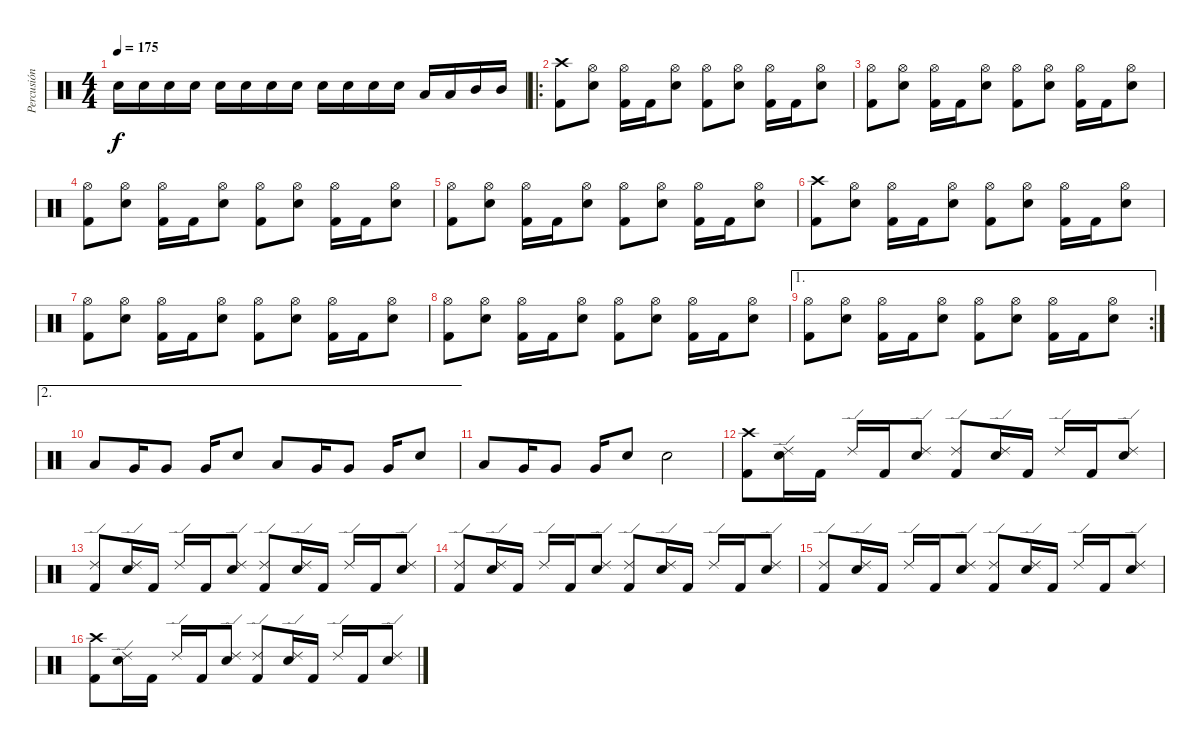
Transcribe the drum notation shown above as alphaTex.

\track ("Percusión" "Percusión") {instrument percussion}
\staff {score}
\articulation defaults
\ts (4 4)
\tempo 175
\clef neutral
\ks c "Electric Snare (hit)".16{dy f} "Electric Snare (hit)".16 "Electric Snare (hit)".16 "Electric Snare (hit)".16 "Electric Snare (hit)".16 "Electric Snare (hit)".16 "Electric Snare (hit)".16 "Electric Snare (hit)".16 "Electric Snare (hit)".16 "Electric Snare (hit)".16 "Electric Snare (hit)".16 "Electric Snare (hit)".16 "Low Tom (hit)".16 "Low Tom (hit)".16 "Mid Tom (hit)".16 "Mid Tom (hit)".16
|
\ro
("Crash high (hit)" "Kick (hit) 2").8 ("Hi-Hat (open)" "Electric Snare (hit)").8 ("Hi-Hat (open)" "Kick (hit) 2").16 "Kick (hit) 2".16 ("Hi-Hat (open)" "Electric Snare (hit)").8 ("Hi-Hat (open)" "Kick (hit) 2").8 ("Hi-Hat (open)" "Electric Snare (hit)").8 ("Hi-Hat (open)" "Kick (hit) 2").16 "Kick (hit) 2".16 ("Hi-Hat (open)" "Electric Snare (hit)").8 |
("Hi-Hat (open)" "Kick (hit) 2").8 ("Hi-Hat (open)" "Electric Snare (hit)").8 ("Hi-Hat (open)" "Kick (hit) 2").16 "Kick (hit) 2".16 ("Hi-Hat (open)" "Electric Snare (hit)").8 ("Hi-Hat (open)" "Kick (hit) 2").8 ("Hi-Hat (open)" "Electric Snare (hit)").8 ("Hi-Hat (open)" "Kick (hit) 2").16 "Kick (hit) 2".16 ("Hi-Hat (open)" "Electric Snare (hit)").8 |
("Hi-Hat (open)" "Kick (hit) 2").8 ("Hi-Hat (open)" "Electric Snare (hit)").8 ("Hi-Hat (open)" "Kick (hit) 2").16 "Kick (hit) 2".16 ("Hi-Hat (open)" "Electric Snare (hit)").8 ("Hi-Hat (open)" "Kick (hit) 2").8 ("Hi-Hat (open)" "Electric Snare (hit)").8 ("Hi-Hat (open)" "Kick (hit) 2").16 "Kick (hit) 2".16 ("Hi-Hat (open)" "Electric Snare (hit)").8 |
("Hi-Hat (open)" "Kick (hit) 2").8 ("Hi-Hat (open)" "Electric Snare (hit)").8 ("Hi-Hat (open)" "Kick (hit) 2").16 "Kick (hit) 2".16 ("Hi-Hat (open)" "Electric Snare (hit)").8 ("Hi-Hat (open)" "Kick (hit) 2").8 ("Hi-Hat (open)" "Electric Snare (hit)").8 ("Hi-Hat (open)" "Kick (hit) 2").16 "Kick (hit) 2".16 ("Hi-Hat (open)" "Electric Snare (hit)").8 |
("Crash high (hit)" "Kick (hit) 2").8 ("Hi-Hat (open)" "Electric Snare (hit)").8 ("Hi-Hat (open)" "Kick (hit) 2").16 "Kick (hit) 2".16 ("Hi-Hat (open)" "Electric Snare (hit)").8 ("Hi-Hat (open)" "Kick (hit) 2").8 ("Hi-Hat (open)" "Electric Snare (hit)").8 ("Hi-Hat (open)" "Kick (hit) 2").16 "Kick (hit) 2".16 ("Hi-Hat (open)" "Electric Snare (hit)").8 |
("Hi-Hat (open)" "Kick (hit) 2").8 ("Hi-Hat (open)" "Electric Snare (hit)").8 ("Hi-Hat (open)" "Kick (hit) 2").16 "Kick (hit) 2".16 ("Hi-Hat (open)" "Electric Snare (hit)").8 ("Hi-Hat (open)" "Kick (hit) 2").8 ("Hi-Hat (open)" "Electric Snare (hit)").8 ("Hi-Hat (open)" "Kick (hit) 2").16 "Kick (hit) 2".16 ("Hi-Hat (open)" "Electric Snare (hit)").8 |
("Hi-Hat (open)" "Kick (hit) 2").8 ("Hi-Hat (open)" "Electric Snare (hit)").8 ("Hi-Hat (open)" "Kick (hit) 2").16 "Kick (hit) 2".16 ("Hi-Hat (open)" "Electric Snare (hit)").8 ("Hi-Hat (open)" "Kick (hit) 2").8 ("Hi-Hat (open)" "Electric Snare (hit)").8 ("Hi-Hat (open)" "Kick (hit) 2").16 "Kick (hit) 2".16 ("Hi-Hat (open)" "Electric Snare (hit)").8 |
\ae 1
\rc 2
("Hi-Hat (open)" "Kick (hit) 2").8 ("Hi-Hat (open)" "Electric Snare (hit)").8 ("Hi-Hat (open)" "Kick (hit) 2").16 "Kick (hit) 2".16 ("Hi-Hat (open)" "Electric Snare (hit)").8 ("Hi-Hat (open)" "Kick (hit) 2").8 ("Hi-Hat (open)" "Electric Snare (hit)").8 ("Hi-Hat (open)" "Kick (hit) 2").16 "Kick (hit) 2".16 ("Hi-Hat (open)" "Electric Snare (hit)").8 |
\ae 2 "Low Tom (hit)".8 "Very Low Tom (hit)".16 "Very Low Tom (hit)".8 "Very Low Tom (hit)".16 "Electric Snare (hit)".8 "Low Tom (hit)".8 "Very Low Tom (hit)".16 "Very Low Tom (hit)".8 "Very Low Tom (hit)".16 "Electric Snare (hit)".8
|
"Low Tom (hit)".8 "Very Low Tom (hit)".16 "Very Low Tom (hit)".8 "Very Low Tom (hit)".16 "Electric Snare (hit)".8 "Electric Snare (hit)".2 |
("Crash high (hit)" "Kick (hit) 2").8 ("Ride (edge) 2" "Electric Snare (hit)").16 "Kick (hit) 2".16 "Ride (edge) 2".16 "Kick (hit) 2".16 ("Ride (edge) 2" "Electric Snare (hit)").8 ("Ride (edge) 2" "Kick (hit) 2").8 ("Ride (edge) 2" "Electric Snare (hit)").16 "Kick (hit) 2".16 "Ride (edge) 2".16 "Kick (hit) 2".16 ("Ride (edge) 2" "Electric Snare (hit)").8 |
("Ride (edge) 2" "Kick (hit) 2").8 ("Ride (edge) 2" "Electric Snare (hit)").16 "Kick (hit) 2".16 "Ride (edge) 2".16 "Kick (hit) 2".16 ("Ride (edge) 2" "Electric Snare (hit)").8 ("Ride (edge) 2" "Kick (hit) 2").8 ("Ride (edge) 2" "Electric Snare (hit)").16 "Kick (hit) 2".16 "Ride (edge) 2".16 "Kick (hit) 2".16 ("Ride (edge) 2" "Electric Snare (hit)").8 |
("Ride (edge) 2" "Kick (hit) 2").8 ("Ride (edge) 2" "Electric Snare (hit)").16 "Kick (hit) 2".16 "Ride (edge) 2".16 "Kick (hit) 2".16 ("Ride (edge) 2" "Electric Snare (hit)").8 ("Ride (edge) 2" "Kick (hit) 2").8 ("Ride (edge) 2" "Electric Snare (hit)").16 "Kick (hit) 2".16 "Ride (edge) 2".16 "Kick (hit) 2".16 ("Ride (edge) 2" "Electric Snare (hit)").8 |
("Ride (edge) 2" "Kick (hit) 2").8 ("Ride (edge) 2" "Electric Snare (hit)").16 "Kick (hit) 2".16 "Ride (edge) 2".16 "Kick (hit) 2".16 ("Ride (edge) 2" "Electric Snare (hit)").8 ("Ride (edge) 2" "Kick (hit) 2").8 ("Ride (edge) 2" "Electric Snare (hit)").16 "Kick (hit) 2".16 "Ride (edge) 2".16 "Kick (hit) 2".16 ("Ride (edge) 2" "Electric Snare (hit)").8 |
("Crash high (hit)" "Kick (hit) 2").8 ("Ride (edge) 2" "Electric Snare (hit)").16 "Kick (hit) 2".16 "Ride (edge) 2".16 "Kick (hit) 2".16 ("Ride (edge) 2" "Electric Snare (hit)").8 ("Ride (edge) 2" "Kick (hit) 2").8 ("Ride (edge) 2" "Electric Snare (hit)").16 "Kick (hit) 2".16 "Ride (edge) 2".16 "Kick (hit) 2".16 ("Ride (edge) 2" "Electric Snare (hit)").8
